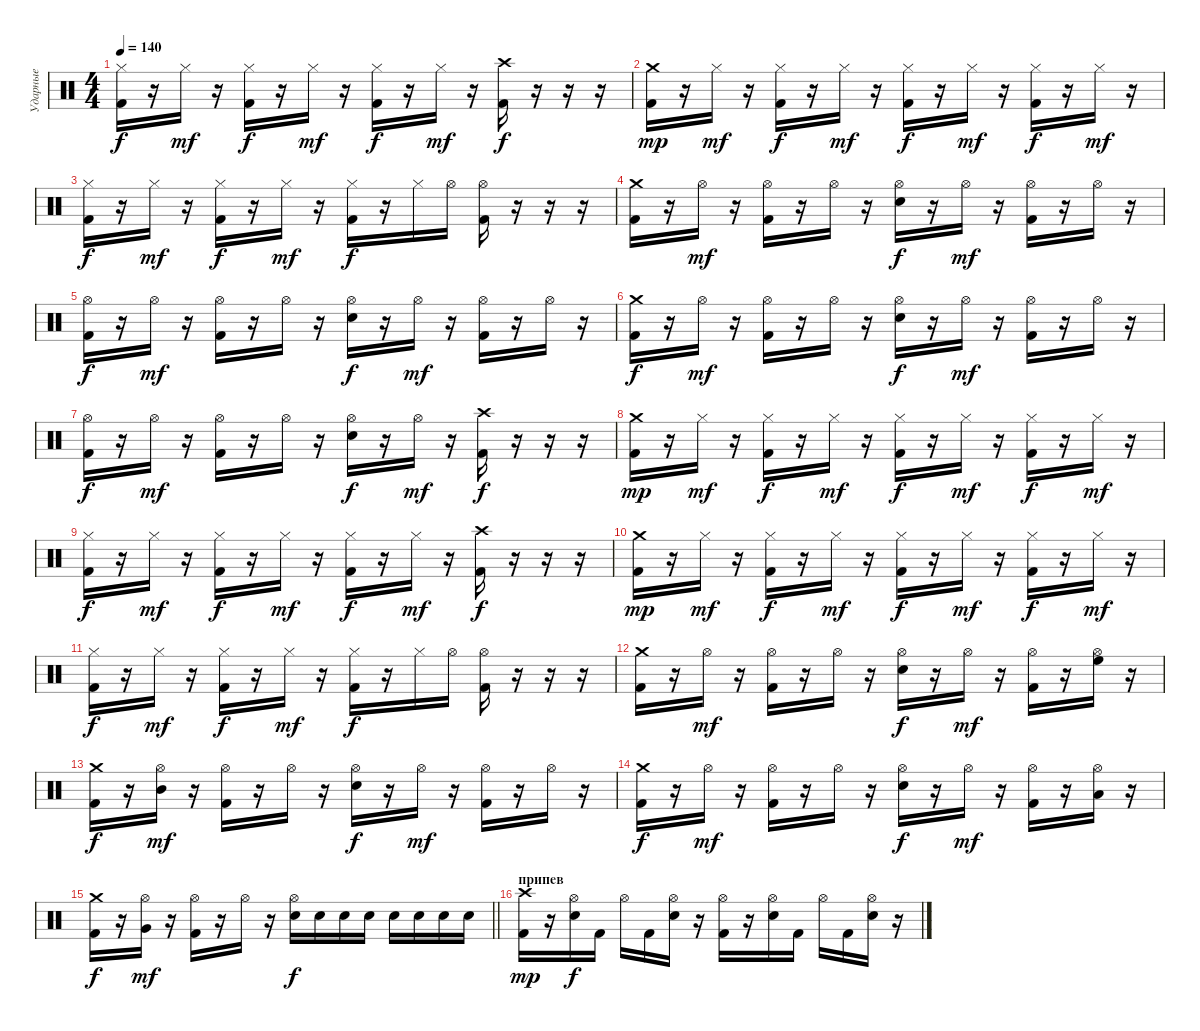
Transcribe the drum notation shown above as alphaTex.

\track ("Ударные" "Ударные") {instrument percussion}
\staff {score}
\articulation defaults
\ts (4 4)
\tempo 140
\clef neutral
\ks c
("Hi-Hat (closed)" "Kick (hit) 2").16{dy f} r.16 "Hi-Hat (closed)".16{dy mf} r.16 ("Hi-Hat (closed)" "Kick (hit) 2").16{dy f} r.16 "Hi-Hat (closed)".16{dy mf} r.16 ("Hi-Hat (closed)" "Kick (hit) 2").16{dy f} r.16 "Hi-Hat (closed)".16{dy mf} r.16 ("Crash high (hit)" "Kick (hit) 2").16{dy f} r.16 r.16 r.16 |
("Crash medium (hit)" "Kick (hit) 2").16{dy mp} r.16 "Hi-Hat (closed)".16{dy mf} r.16 ("Hi-Hat (closed)" "Kick (hit) 2").16{dy f} r.16 "Hi-Hat (closed)".16{dy mf} r.16 ("Hi-Hat (closed)" "Kick (hit) 2").16{dy f} r.16 "Hi-Hat (closed)".16{dy mf} r.16 ("Hi-Hat (closed)" "Kick (hit) 2").16{dy f} r.16 "Hi-Hat (closed)".16{dy mf} r.16 |
("Hi-Hat (closed)" "Kick (hit) 2").16{dy f} r.16 "Hi-Hat (closed)".16{dy mf} r.16 ("Hi-Hat (closed)" "Kick (hit) 2").16{dy f} r.16 "Hi-Hat (closed)".16{dy mf} r.16 ("Hi-Hat (closed)" "Kick (hit) 2").16{dy f} r.16 "Hi-Hat (closed)".16 "Hi-Hat (open)".16 ("Hi-Hat (open)" "Kick (hit) 2").16 r.16 r.16 r.16 |
("Crash medium (hit)" "Kick (hit) 2").16 r.16 "Hi-Hat (open)".16{dy mf} r.16 ("Hi-Hat (open)" "Kick (hit) 2").16 r.16 "Hi-Hat (open)".16 r.16 ("Hi-Hat (open)" "Electric Snare (hit)").16{dy f} r.16 "Hi-Hat (open)".16{dy mf} r.16 ("Hi-Hat (open)" "Kick (hit) 2").16 r.16 "Hi-Hat (open)".16 r.16 |
("Hi-Hat (open)" "Kick (hit) 2").16{dy f} r.16 "Hi-Hat (open)".16{dy mf} r.16 ("Hi-Hat (open)" "Kick (hit) 2").16 r.16 "Hi-Hat (open)".16 r.16 ("Hi-Hat (open)" "Electric Snare (hit)").16{dy f} r.16 "Hi-Hat (open)".16{dy mf} r.16 ("Hi-Hat (open)" "Kick (hit) 2").16 r.16 "Hi-Hat (open)".16 r.16 |
("Crash medium (hit)" "Kick (hit) 2").16{dy f} r.16 "Hi-Hat (open)".16{dy mf} r.16 ("Hi-Hat (open)" "Kick (hit) 2").16 r.16 "Hi-Hat (open)".16 r.16 ("Hi-Hat (open)" "Electric Snare (hit)").16{dy f} r.16 "Hi-Hat (open)".16{dy mf} r.16 ("Hi-Hat (open)" "Kick (hit) 2").16 r.16 "Hi-Hat (open)".16 r.16 |
("Hi-Hat (open)" "Kick (hit) 2").16{dy f} r.16 "Hi-Hat (open)".16{dy mf} r.16 ("Hi-Hat (open)" "Kick (hit) 2").16 r.16 "Hi-Hat (open)".16 r.16 ("Hi-Hat (open)" "Electric Snare (hit)").16{dy f} r.16 "Hi-Hat (open)".16{dy mf} r.16 ("Crash high (hit)" "Kick (hit) 2").16{dy f} r.16 r.16 r.16 |
("Crash medium (hit)" "Kick (hit) 2").16{dy mp} r.16 "Hi-Hat (closed)".16{dy mf} r.16 ("Hi-Hat (closed)" "Kick (hit) 2").16{dy f} r.16 "Hi-Hat (closed)".16{dy mf} r.16 ("Hi-Hat (closed)" "Kick (hit) 2").16{dy f} r.16 "Hi-Hat (closed)".16{dy mf} r.16 ("Hi-Hat (closed)" "Kick (hit) 2").16{dy f} r.16 "Hi-Hat (closed)".16{dy mf} r.16 |
("Hi-Hat (closed)" "Kick (hit) 2").16{dy f} r.16 "Hi-Hat (closed)".16{dy mf} r.16 ("Hi-Hat (closed)" "Kick (hit) 2").16{dy f} r.16 "Hi-Hat (closed)".16{dy mf} r.16 ("Hi-Hat (closed)" "Kick (hit) 2").16{dy f} r.16 "Hi-Hat (closed)".16{dy mf} r.16 ("Crash high (hit)" "Kick (hit) 2").16{dy f} r.16 r.16 r.16 |
("Crash medium (hit)" "Kick (hit) 2").16{dy mp} r.16 "Hi-Hat (closed)".16{dy mf} r.16 ("Hi-Hat (closed)" "Kick (hit) 2").16{dy f} r.16 "Hi-Hat (closed)".16{dy mf} r.16 ("Hi-Hat (closed)" "Kick (hit) 2").16{dy f} r.16 "Hi-Hat (closed)".16{dy mf} r.16 ("Hi-Hat (closed)" "Kick (hit) 2").16{dy f} r.16 "Hi-Hat (closed)".16{dy mf} r.16 |
("Hi-Hat (closed)" "Kick (hit) 2").16{dy f} r.16 "Hi-Hat (closed)".16{dy mf} r.16 ("Hi-Hat (closed)" "Kick (hit) 2").16{dy f} r.16 "Hi-Hat (closed)".16{dy mf} r.16 ("Hi-Hat (closed)" "Kick (hit) 2").16{dy f} r.16 "Hi-Hat (closed)".16 "Hi-Hat (open)".16 ("Hi-Hat (open)" "Kick (hit) 2").16 r.16 r.16 r.16 |
("Crash medium (hit)" "Kick (hit) 2").16 r.16 "Hi-Hat (open)".16{dy mf} r.16 ("Hi-Hat (open)" "Kick (hit) 2").16 r.16 "Hi-Hat (open)".16 r.16 ("Hi-Hat (open)" "Electric Snare (hit)").16{dy f} r.16 "Hi-Hat (open)".16{dy mf} r.16 ("Hi-Hat (open)" "Kick (hit) 2").16 r.16 ("Hi-Hat (open)" "High Floor Tom (hit)").16 r.16 |
("Crash medium (hit)" "Kick (hit) 2").16{dy f} r.16 ("Hi-Hat (open)" "Mid Tom (hit)").16{dy mf} r.16 ("Hi-Hat (open)" "Kick (hit) 2").16 r.16 "Hi-Hat (open)".16 r.16 ("Hi-Hat (open)" "Electric Snare (hit)").16{dy f} r.16 "Hi-Hat (open)".16{dy mf} r.16 ("Hi-Hat (open)" "Kick (hit) 2").16 r.16 "Hi-Hat (open)".16 r.16 |
("Crash medium (hit)" "Kick (hit) 2").16{dy f} r.16 "Hi-Hat (open)".16{dy mf} r.16 ("Hi-Hat (open)" "Kick (hit) 2").16 r.16 "Hi-Hat (open)".16 r.16 ("Hi-Hat (open)" "Electric Snare (hit)").16{dy f} r.16 "Hi-Hat (open)".16{dy mf} r.16 ("Hi-Hat (open)" "Kick (hit) 2").16 r.16 ("Hi-Hat (open)" "Low Tom (hit)").16 r.16 |
\barLineRight lightlight
("Crash medium (hit)" "Kick (hit) 2").16{dy f} r.16 ("Hi-Hat (open)" "Very Low Tom (hit)").16{dy mf} r.16 ("Hi-Hat (open)" "Kick (hit) 2").16 r.16 "Hi-Hat (open)".16 r.16 ("Hi-Hat (open)" "Electric Snare (hit)").16{dy f} "Electric Snare (hit)".16 "Electric Snare (hit)".16 "Electric Snare (hit)".16 "Electric Snare (hit)".16 "Electric Snare (hit)".16 "Electric Snare (hit)".16 "Electric Snare (hit)".16 |
\section ("" "припев")
("Crash high (hit)" "Kick (hit) 2").16{dy mp} r.16 ("Hi-Hat (open)" "Electric Snare (hit)").16{dy f} "Kick (hit) 2".16 "Hi-Hat (open)".16 "Kick (hit) 2".16 ("Hi-Hat (open)" "Electric Snare (hit)").16 r.16 ("Hi-Hat (open)" "Kick (hit) 2").16 r.16 ("Hi-Hat (open)" "Electric Snare (hit)").16 "Kick (hit) 2".16 "Hi-Hat (open)".16 "Kick (hit) 2".16 ("Hi-Hat (open)" "Electric Snare (hit)").16 r.16
